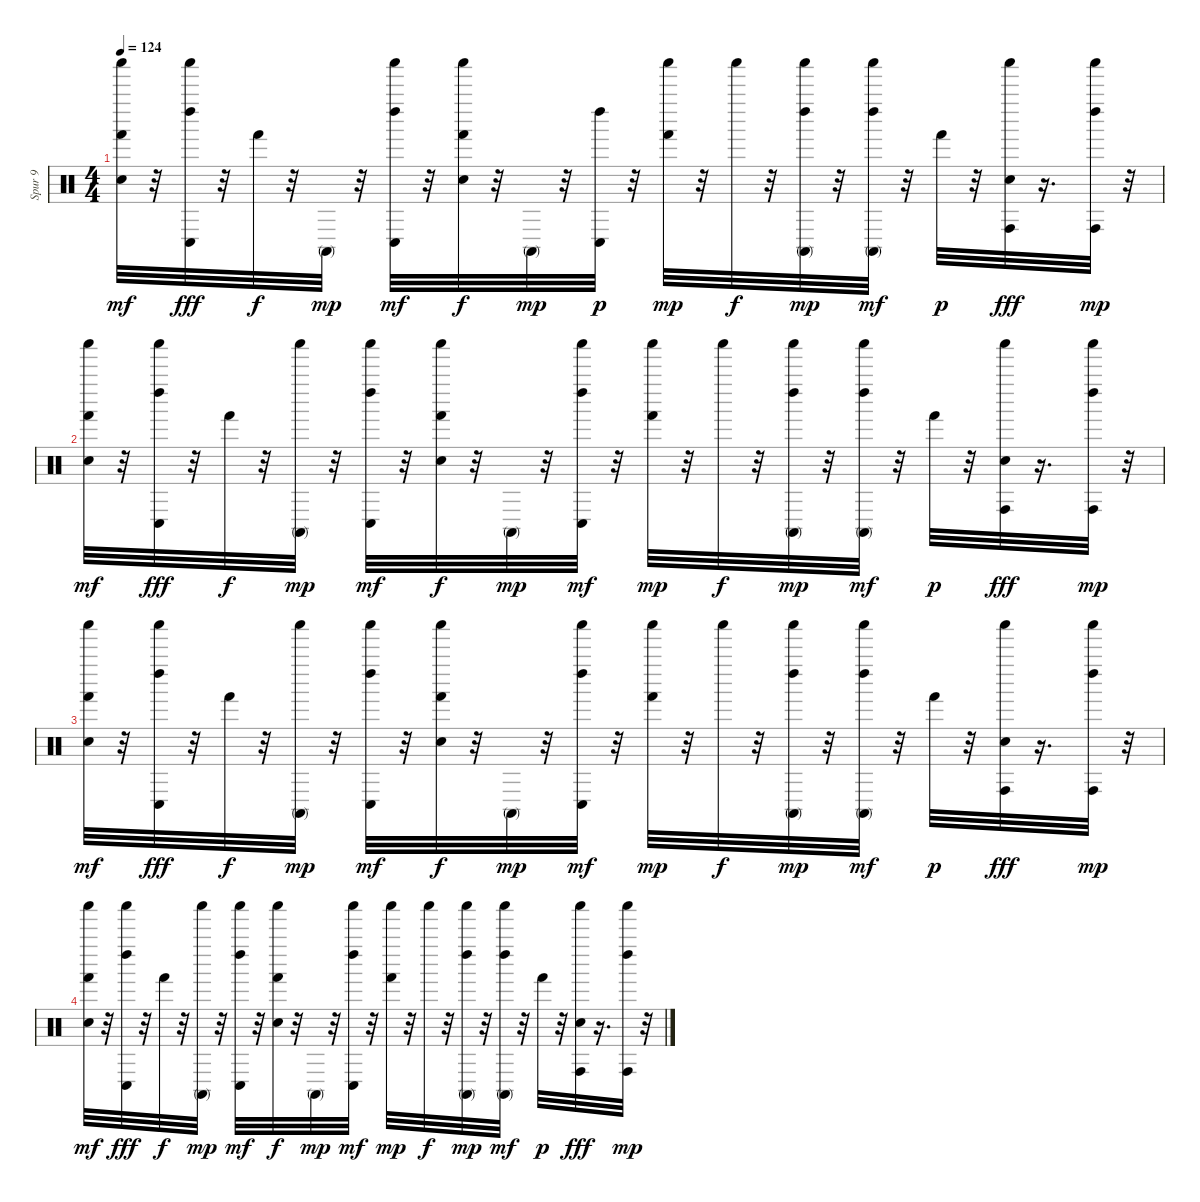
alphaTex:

\track ("Spur 9" "Spur 9") {instrument percussion}
\staff {score}
\articulation defaults
\ts (4 4)
\tempo 124
\clef neutral
\ks c
("Electric Snare (hit)" "Hand (hit)" "Shaker (hit)").32{dy mf} r.32 ("Conga low (hit)" "Left Maraca (hit)" "Shaker (hit)").32{dy fff} r.32 "Hand (hit)".32{dy f} r.32 "Conga high (mute)".32{dy mp} r.32 ("Conga low (hit)" "Left Maraca (hit)" "Shaker (hit)").32{dy mf} r.32 ("Electric Snare (hit)" "Hand (hit)" "Shaker (hit)").32{dy f} r.32 "Conga high (mute)".32{dy mp} r.32 ("Conga low (hit)" "Left Maraca (hit)").32{dy p} r.32 ("Hand (hit)" "Shaker (hit)").32{dy mp} r.32 "Shaker (hit)".32{dy f} r.32 ("Conga high (mute)" "Left Maraca (hit)" "Shaker (hit)").32{dy mp} r.32 ("Conga high (mute)" "Left Maraca (hit)" "Shaker (hit)").32{dy mf} r.32 "Hand (hit)".32{dy p} r.32 ("Electric Snare (hit)" "Conga high (hit)" "Shaker (hit)").32{dy fff} r.16{d} ("Conga high (hit)" "Left Maraca (hit)" "Shaker (hit)").32{dy mp} r.32 |
("Electric Snare (hit)" "Hand (hit)" "Shaker (hit)").32{dy mf} r.32 ("Conga low (hit)" "Left Maraca (hit)" "Shaker (hit)").32{dy fff} r.32 "Hand (hit)".32{dy f} r.32 ("Conga high (mute)" "Shaker (hit)").32{dy mp} r.32 ("Conga low (hit)" "Left Maraca (hit)" "Shaker (hit)").32{dy mf} r.32 ("Electric Snare (hit)" "Hand (hit)" "Shaker (hit)").32{dy f} r.32 "Conga high (mute)".32{dy mp} r.32 ("Conga low (hit)" "Left Maraca (hit)" "Shaker (hit)").32{dy mf} r.32 ("Hand (hit)" "Shaker (hit)").32{dy mp} r.32 "Shaker (hit)".32{dy f} r.32 ("Conga high (mute)" "Left Maraca (hit)" "Shaker (hit)").32{dy mp} r.32 ("Conga high (mute)" "Left Maraca (hit)" "Shaker (hit)").32{dy mf} r.32 "Hand (hit)".32{dy p} r.32 ("Electric Snare (hit)" "Conga high (hit)" "Shaker (hit)").32{dy fff} r.16{d} ("Conga high (hit)" "Left Maraca (hit)" "Shaker (hit)").32{dy mp} r.32 |
("Electric Snare (hit)" "Hand (hit)" "Shaker (hit)").32{dy mf} r.32 ("Conga low (hit)" "Left Maraca (hit)" "Shaker (hit)").32{dy fff} r.32 "Hand (hit)".32{dy f} r.32 ("Conga high (mute)" "Shaker (hit)").32{dy mp} r.32 ("Conga low (hit)" "Left Maraca (hit)" "Shaker (hit)").32{dy mf} r.32 ("Electric Snare (hit)" "Hand (hit)" "Shaker (hit)").32{dy f} r.32 "Conga high (mute)".32{dy mp} r.32 ("Conga low (hit)" "Left Maraca (hit)" "Shaker (hit)").32{dy mf} r.32 ("Hand (hit)" "Shaker (hit)").32{dy mp} r.32 "Shaker (hit)".32{dy f} r.32 ("Conga high (mute)" "Left Maraca (hit)" "Shaker (hit)").32{dy mp} r.32 ("Conga high (mute)" "Left Maraca (hit)" "Shaker (hit)").32{dy mf} r.32 "Hand (hit)".32{dy p} r.32 ("Electric Snare (hit)" "Conga high (hit)" "Shaker (hit)").32{dy fff} r.16{d} ("Conga high (hit)" "Left Maraca (hit)" "Shaker (hit)").32{dy mp} r.32 |
("Electric Snare (hit)" "Hand (hit)" "Shaker (hit)").32{dy mf} r.32 ("Conga low (hit)" "Left Maraca (hit)" "Shaker (hit)").32{dy fff} r.32 "Hand (hit)".32{dy f} r.32 ("Conga high (mute)" "Shaker (hit)").32{dy mp} r.32 ("Conga low (hit)" "Left Maraca (hit)" "Shaker (hit)").32{dy mf} r.32 ("Electric Snare (hit)" "Hand (hit)" "Shaker (hit)").32{dy f} r.32 "Conga high (mute)".32{dy mp} r.32 ("Conga low (hit)" "Left Maraca (hit)" "Shaker (hit)").32{dy mf} r.32 ("Hand (hit)" "Shaker (hit)").32{dy mp} r.32 "Shaker (hit)".32{dy f} r.32 ("Conga high (mute)" "Left Maraca (hit)" "Shaker (hit)").32{dy mp} r.32 ("Conga high (mute)" "Left Maraca (hit)" "Shaker (hit)").32{dy mf} r.32 "Hand (hit)".32{dy p} r.32 ("Electric Snare (hit)" "Conga high (hit)" "Shaker (hit)").32{dy fff} r.16{d} ("Conga high (hit)" "Left Maraca (hit)" "Shaker (hit)").32{dy mp} r.32
